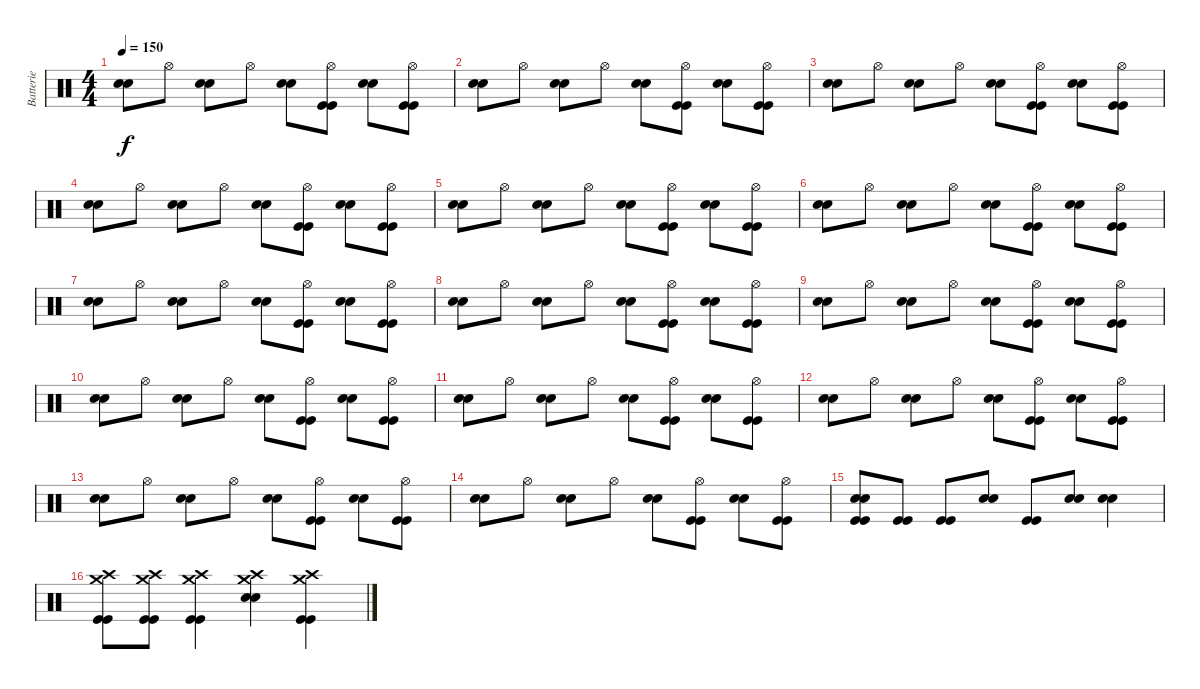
\track ("Batterie" "Batterie") {instrument percussion}
\staff {score}
\articulation defaults
\ts (4 4)
\tempo 150
\clef neutral
\ks c
("Electric Snare (hit)" "Electric Snare (hit)").8{dy f} "Hi-Hat (open)".8 ("Electric Snare (hit)" "Electric Snare (hit)").8 "Hi-Hat (open)".8 ("Electric Snare (hit)" "Electric Snare (hit)").8 ("Hi-Hat (open)" "Kick (hit)" "Kick (hit)").8 ("Electric Snare (hit)" "Electric Snare (hit)").8 ("Hi-Hat (open)" "Kick (hit)" "Kick (hit)").8 |
("Electric Snare (hit)" "Electric Snare (hit)").8 "Hi-Hat (open)".8 ("Electric Snare (hit)" "Electric Snare (hit)").8 "Hi-Hat (open)".8 ("Electric Snare (hit)" "Electric Snare (hit)").8 ("Hi-Hat (open)" "Kick (hit)" "Kick (hit)").8 ("Electric Snare (hit)" "Electric Snare (hit)").8 ("Hi-Hat (open)" "Kick (hit)" "Kick (hit)").8 |
("Electric Snare (hit)" "Electric Snare (hit)").8 "Hi-Hat (open)".8 ("Electric Snare (hit)" "Electric Snare (hit)").8 "Hi-Hat (open)".8 ("Electric Snare (hit)" "Electric Snare (hit)").8 ("Hi-Hat (open)" "Kick (hit)" "Kick (hit)").8 ("Electric Snare (hit)" "Electric Snare (hit)").8 ("Hi-Hat (open)" "Kick (hit)" "Kick (hit)").8 |
("Electric Snare (hit)" "Electric Snare (hit)").8 "Hi-Hat (open)".8 ("Electric Snare (hit)" "Electric Snare (hit)").8 "Hi-Hat (open)".8 ("Electric Snare (hit)" "Electric Snare (hit)").8 ("Hi-Hat (open)" "Kick (hit)" "Kick (hit)").8 ("Electric Snare (hit)" "Electric Snare (hit)").8 ("Hi-Hat (open)" "Kick (hit)" "Kick (hit)").8 |
("Electric Snare (hit)" "Electric Snare (hit)").8 "Hi-Hat (open)".8 ("Electric Snare (hit)" "Electric Snare (hit)").8 "Hi-Hat (open)".8 ("Electric Snare (hit)" "Electric Snare (hit)").8 ("Hi-Hat (open)" "Kick (hit)" "Kick (hit)").8 ("Electric Snare (hit)" "Electric Snare (hit)").8 ("Hi-Hat (open)" "Kick (hit)" "Kick (hit)").8 |
("Electric Snare (hit)" "Electric Snare (hit)").8 "Hi-Hat (open)".8 ("Electric Snare (hit)" "Electric Snare (hit)").8 "Hi-Hat (open)".8 ("Electric Snare (hit)" "Electric Snare (hit)").8 ("Hi-Hat (open)" "Kick (hit)" "Kick (hit)").8 ("Electric Snare (hit)" "Electric Snare (hit)").8 ("Hi-Hat (open)" "Kick (hit)" "Kick (hit)").8 |
("Electric Snare (hit)" "Electric Snare (hit)").8 "Hi-Hat (open)".8 ("Electric Snare (hit)" "Electric Snare (hit)").8 "Hi-Hat (open)".8 ("Electric Snare (hit)" "Electric Snare (hit)").8 ("Hi-Hat (open)" "Kick (hit)" "Kick (hit)").8 ("Electric Snare (hit)" "Electric Snare (hit)").8 ("Hi-Hat (open)" "Kick (hit)" "Kick (hit)").8 |
("Electric Snare (hit)" "Electric Snare (hit)").8 "Hi-Hat (open)".8 ("Electric Snare (hit)" "Electric Snare (hit)").8 "Hi-Hat (open)".8 ("Electric Snare (hit)" "Electric Snare (hit)").8 ("Hi-Hat (open)" "Kick (hit)" "Kick (hit)").8 ("Electric Snare (hit)" "Electric Snare (hit)").8 ("Hi-Hat (open)" "Kick (hit)" "Kick (hit)").8 |
("Electric Snare (hit)" "Electric Snare (hit)").8 "Hi-Hat (open)".8 ("Electric Snare (hit)" "Electric Snare (hit)").8 "Hi-Hat (open)".8 ("Electric Snare (hit)" "Electric Snare (hit)").8 ("Hi-Hat (open)" "Kick (hit)" "Kick (hit)").8 ("Electric Snare (hit)" "Electric Snare (hit)").8 ("Hi-Hat (open)" "Kick (hit)" "Kick (hit)").8 |
("Electric Snare (hit)" "Electric Snare (hit)").8 "Hi-Hat (open)".8 ("Electric Snare (hit)" "Electric Snare (hit)").8 "Hi-Hat (open)".8 ("Electric Snare (hit)" "Electric Snare (hit)").8 ("Hi-Hat (open)" "Kick (hit)" "Kick (hit)").8 ("Electric Snare (hit)" "Electric Snare (hit)").8 ("Hi-Hat (open)" "Kick (hit)" "Kick (hit)").8 |
("Electric Snare (hit)" "Electric Snare (hit)").8 "Hi-Hat (open)".8 ("Electric Snare (hit)" "Electric Snare (hit)").8 "Hi-Hat (open)".8 ("Electric Snare (hit)" "Electric Snare (hit)").8 ("Hi-Hat (open)" "Kick (hit)" "Kick (hit)").8 ("Electric Snare (hit)" "Electric Snare (hit)").8 ("Hi-Hat (open)" "Kick (hit)" "Kick (hit)").8 |
("Electric Snare (hit)" "Electric Snare (hit)").8 "Hi-Hat (open)".8 ("Electric Snare (hit)" "Electric Snare (hit)").8 "Hi-Hat (open)".8 ("Electric Snare (hit)" "Electric Snare (hit)").8 ("Hi-Hat (open)" "Kick (hit)" "Kick (hit)").8 ("Electric Snare (hit)" "Electric Snare (hit)").8 ("Hi-Hat (open)" "Kick (hit)" "Kick (hit)").8 |
("Electric Snare (hit)" "Electric Snare (hit)").8 "Hi-Hat (open)".8 ("Electric Snare (hit)" "Electric Snare (hit)").8 "Hi-Hat (open)".8 ("Electric Snare (hit)" "Electric Snare (hit)").8 ("Hi-Hat (open)" "Kick (hit)" "Kick (hit)").8 ("Electric Snare (hit)" "Electric Snare (hit)").8 ("Hi-Hat (open)" "Kick (hit)" "Kick (hit)").8 |
("Electric Snare (hit)" "Electric Snare (hit)").8 "Hi-Hat (open)".8 ("Electric Snare (hit)" "Electric Snare (hit)").8 "Hi-Hat (open)".8 ("Electric Snare (hit)" "Electric Snare (hit)").8 ("Hi-Hat (open)" "Kick (hit)" "Kick (hit)").8 ("Electric Snare (hit)" "Electric Snare (hit)").8 ("Hi-Hat (open)" "Kick (hit)" "Kick (hit)").8 |
("Electric Snare (hit)" "Electric Snare (hit)" "Kick (hit)" "Kick (hit)").8 ("Kick (hit)" "Kick (hit)").8 ("Kick (hit)" "Kick (hit)").8 ("Electric Snare (hit)" "Electric Snare (hit)").8 ("Kick (hit)" "Kick (hit)").8 ("Electric Snare (hit)" "Electric Snare (hit)").8 ("Electric Snare (hit)" "Electric Snare (hit)").4 |
("Crash high (hit)" "Crash medium (hit)" "Kick (hit)" "Kick (hit)").8 ("Crash high (hit)" "Crash medium (hit)" "Kick (hit)" "Kick (hit)").8 ("Crash high (hit)" "Crash medium (hit)" "Kick (hit)" "Kick (hit)").4 ("Crash high (hit)" "Crash medium (hit)" "Electric Snare (hit)" "Electric Snare (hit)").4 ("Crash high (hit)" "Crash medium (hit)" "Kick (hit)" "Kick (hit)").4
